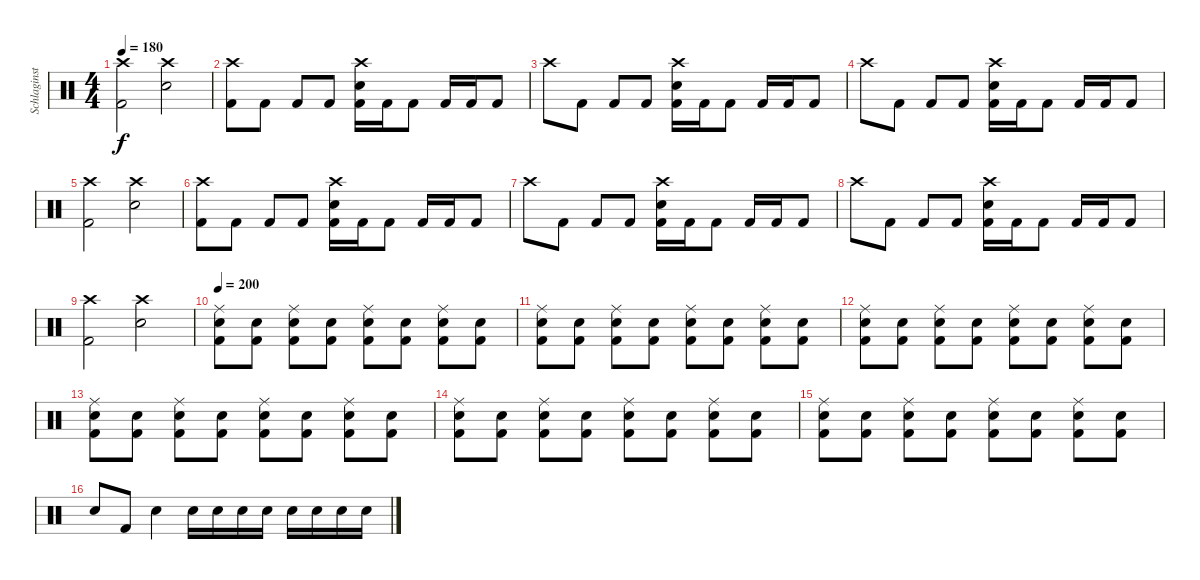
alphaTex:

\track ("Schlaginstrumente - Auswahl" "Schlaginst") {instrument percussion}
\staff {score}
\articulation defaults
\ts (4 4)
\tempo 180
\clef neutral
\ks c
("Crash high (hit)" "Kick (hit) 2").2{dy f} ("Crash high (hit)" "Snare (hit) 2").2 |
("Crash high (hit)" "Kick (hit) 2").8 "Kick (hit) 2".8 "Kick (hit) 2".8 "Kick (hit) 2".8 ("Crash high (hit)" "Snare (hit) 2" "Kick (hit) 2").16 "Kick (hit) 2".16 "Kick (hit) 2".8 "Kick (hit) 2".16 "Kick (hit) 2".16 "Kick (hit) 2".8 |
"Crash high (hit)".8 "Kick (hit) 2".8 "Kick (hit) 2".8 "Kick (hit) 2".8 ("Crash high (hit)" "Snare (hit) 2" "Kick (hit) 2").16 "Kick (hit) 2".16 "Kick (hit) 2".8 "Kick (hit) 2".16 "Kick (hit) 2".16 "Kick (hit) 2".8 |
"Crash high (hit)".8 "Kick (hit) 2".8 "Kick (hit) 2".8 "Kick (hit) 2".8 ("Crash high (hit)" "Snare (hit) 2" "Kick (hit) 2").16 "Kick (hit) 2".16 "Kick (hit) 2".8 "Kick (hit) 2".16 "Kick (hit) 2".16 "Kick (hit) 2".8 |
("Crash high (hit)" "Kick (hit) 2").2 ("Crash high (hit)" "Snare (hit) 2").2 |
("Crash high (hit)" "Kick (hit) 2").8 "Kick (hit) 2".8 "Kick (hit) 2".8 "Kick (hit) 2".8 ("Crash high (hit)" "Snare (hit) 2" "Kick (hit) 2").16 "Kick (hit) 2".16 "Kick (hit) 2".8 "Kick (hit) 2".16 "Kick (hit) 2".16 "Kick (hit) 2".8 |
"Crash high (hit)".8 "Kick (hit) 2".8 "Kick (hit) 2".8 "Kick (hit) 2".8 ("Crash high (hit)" "Snare (hit) 2" "Kick (hit) 2").16 "Kick (hit) 2".16 "Kick (hit) 2".8 "Kick (hit) 2".16 "Kick (hit) 2".16 "Kick (hit) 2".8 |
"Crash high (hit)".8 "Kick (hit) 2".8 "Kick (hit) 2".8 "Kick (hit) 2".8 ("Crash high (hit)" "Snare (hit) 2" "Kick (hit) 2").16 "Kick (hit) 2".16 "Kick (hit) 2".8 "Kick (hit) 2".16 "Kick (hit) 2".16 "Kick (hit) 2".8 |
("Crash high (hit)" "Kick (hit) 2").2 ("Crash high (hit)" "Snare (hit) 2").2 |
\tempo 200
("Ride (middle)" "Snare (hit) 2" "Kick (hit) 2").8 ("Snare (hit) 2" "Kick (hit) 2").8 ("Ride (middle)" "Snare (hit) 2" "Kick (hit) 2").8 ("Snare (hit) 2" "Kick (hit) 2").8 ("Ride (middle)" "Snare (hit) 2" "Kick (hit) 2").8 ("Snare (hit) 2" "Kick (hit) 2").8 ("Ride (middle)" "Snare (hit) 2" "Kick (hit) 2").8 ("Snare (hit) 2" "Kick (hit) 2").8 |
("Ride (middle)" "Snare (hit) 2" "Kick (hit) 2").8 ("Snare (hit) 2" "Kick (hit) 2").8 ("Ride (middle)" "Snare (hit) 2" "Kick (hit) 2").8 ("Snare (hit) 2" "Kick (hit) 2").8 ("Ride (middle)" "Snare (hit) 2" "Kick (hit) 2").8 ("Snare (hit) 2" "Kick (hit) 2").8 ("Ride (middle)" "Snare (hit) 2" "Kick (hit) 2").8 ("Snare (hit) 2" "Kick (hit) 2").8 |
("Ride (middle)" "Snare (hit) 2" "Kick (hit) 2").8 ("Snare (hit) 2" "Kick (hit) 2").8 ("Ride (middle)" "Snare (hit) 2" "Kick (hit) 2").8 ("Snare (hit) 2" "Kick (hit) 2").8 ("Ride (middle)" "Snare (hit) 2" "Kick (hit) 2").8 ("Snare (hit) 2" "Kick (hit) 2").8 ("Ride (middle)" "Snare (hit) 2" "Kick (hit) 2").8 ("Snare (hit) 2" "Kick (hit) 2").8 |
("Ride (middle)" "Snare (hit) 2" "Kick (hit) 2").8 ("Snare (hit) 2" "Kick (hit) 2").8 ("Ride (middle)" "Snare (hit) 2" "Kick (hit) 2").8 ("Snare (hit) 2" "Kick (hit) 2").8 ("Ride (middle)" "Snare (hit) 2" "Kick (hit) 2").8 ("Snare (hit) 2" "Kick (hit) 2").8 ("Ride (middle)" "Snare (hit) 2" "Kick (hit) 2").8 ("Snare (hit) 2" "Kick (hit) 2").8 |
("Ride (middle)" "Snare (hit) 2" "Kick (hit) 2").8 ("Snare (hit) 2" "Kick (hit) 2").8 ("Ride (middle)" "Snare (hit) 2" "Kick (hit) 2").8 ("Snare (hit) 2" "Kick (hit) 2").8 ("Ride (middle)" "Snare (hit) 2" "Kick (hit) 2").8 ("Snare (hit) 2" "Kick (hit) 2").8 ("Ride (middle)" "Snare (hit) 2" "Kick (hit) 2").8 ("Snare (hit) 2" "Kick (hit) 2").8 |
("Ride (middle)" "Snare (hit) 2" "Kick (hit) 2").8 ("Snare (hit) 2" "Kick (hit) 2").8 ("Ride (middle)" "Snare (hit) 2" "Kick (hit) 2").8 ("Snare (hit) 2" "Kick (hit) 2").8 ("Ride (middle)" "Snare (hit) 2" "Kick (hit) 2").8 ("Snare (hit) 2" "Kick (hit) 2").8 ("Ride (middle)" "Snare (hit) 2" "Kick (hit) 2").8 ("Snare (hit) 2" "Kick (hit) 2").8 |
"Snare (hit) 2".8 "Kick (hit) 2".8 "Snare (hit) 2".4 "Snare (hit) 2".16 "Snare (hit) 2".16 "Snare (hit) 2".16 "Snare (hit) 2".16 "Snare (hit) 2".16 "Snare (hit) 2".16 "Snare (hit) 2".16 "Snare (hit) 2".16
